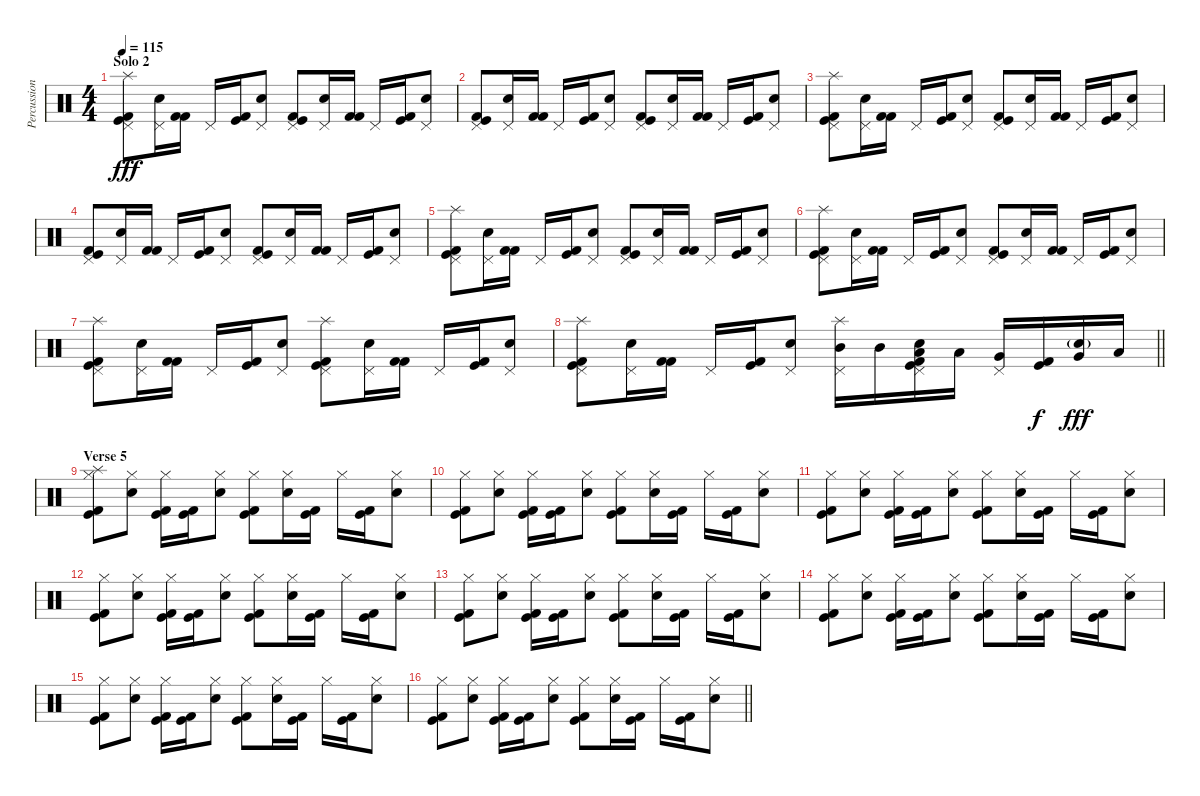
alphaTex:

\track ("Percussion" "Percussion") {instrument percussion}
\staff {score}
\articulation defaults
\ts (4 4)
\section ("" "Solo 2")
\tempo 115
\clef neutral
\ks c
("Splash (hit)" "Pedal Hi-Hat (hit)" "Kick (hit) 2" "Kick (hit)").8{dy fff} ("Pedal Hi-Hat (hit)" "Snare (hit) 2").16 ("Kick (hit) 2" "Kick (hit) 2").16 "Pedal Hi-Hat (hit)".16 ("Kick (hit)" "Kick (hit) 2").16 ("Pedal Hi-Hat (hit)" "Snare (hit) 2").8 ("Pedal Hi-Hat (hit)" "Kick (hit) 2" "Kick (hit)").8 ("Pedal Hi-Hat (hit)" "Snare (hit) 2").16 ("Kick (hit) 2" "Kick (hit) 2").16 "Pedal Hi-Hat (hit)".16 ("Kick (hit)" "Kick (hit) 2").16 ("Pedal Hi-Hat (hit)" "Snare (hit) 2").8 |
("Pedal Hi-Hat (hit)" "Kick (hit) 2" "Kick (hit)").8 ("Pedal Hi-Hat (hit)" "Snare (hit) 2").16 ("Kick (hit) 2" "Kick (hit) 2").16 "Pedal Hi-Hat (hit)".16 ("Kick (hit)" "Kick (hit) 2").16 ("Pedal Hi-Hat (hit)" "Snare (hit) 2").8 ("Pedal Hi-Hat (hit)" "Kick (hit) 2" "Kick (hit)").8 ("Pedal Hi-Hat (hit)" "Snare (hit) 2").16 ("Kick (hit) 2" "Kick (hit) 2").16 "Pedal Hi-Hat (hit)".16 ("Kick (hit)" "Kick (hit) 2").16 ("Pedal Hi-Hat (hit)" "Snare (hit) 2").8 |
("Splash (hit)" "Pedal Hi-Hat (hit)" "Kick (hit) 2" "Kick (hit)").8 ("Pedal Hi-Hat (hit)" "Snare (hit) 2").16 ("Kick (hit) 2" "Kick (hit) 2").16 "Pedal Hi-Hat (hit)".16 ("Kick (hit)" "Kick (hit) 2").16 ("Pedal Hi-Hat (hit)" "Snare (hit) 2").8 ("Pedal Hi-Hat (hit)" "Kick (hit) 2" "Kick (hit)").8 ("Pedal Hi-Hat (hit)" "Snare (hit) 2").16 ("Kick (hit) 2" "Kick (hit) 2").16 "Pedal Hi-Hat (hit)".16 ("Kick (hit)" "Kick (hit) 2").16 ("Pedal Hi-Hat (hit)" "Snare (hit) 2").8 |
("Pedal Hi-Hat (hit)" "Kick (hit) 2" "Kick (hit)").8 ("Pedal Hi-Hat (hit)" "Snare (hit) 2").16 ("Kick (hit) 2" "Kick (hit) 2").16 "Pedal Hi-Hat (hit)".16 ("Kick (hit)" "Kick (hit) 2").16 ("Pedal Hi-Hat (hit)" "Snare (hit) 2").8 ("Pedal Hi-Hat (hit)" "Kick (hit) 2" "Kick (hit)").8 ("Pedal Hi-Hat (hit)" "Snare (hit) 2").16 ("Kick (hit) 2" "Kick (hit) 2").16 "Pedal Hi-Hat (hit)".16 ("Kick (hit)" "Kick (hit) 2").16 ("Pedal Hi-Hat (hit)" "Snare (hit) 2").8 |
("Splash (hit)" "Pedal Hi-Hat (hit)" "Kick (hit) 2" "Kick (hit)").8 ("Pedal Hi-Hat (hit)" "Snare (hit) 2").16 ("Kick (hit) 2" "Kick (hit) 2").16 "Pedal Hi-Hat (hit)".16 ("Kick (hit)" "Kick (hit) 2").16 ("Pedal Hi-Hat (hit)" "Snare (hit) 2").8 ("Pedal Hi-Hat (hit)" "Kick (hit) 2" "Kick (hit)").8 ("Pedal Hi-Hat (hit)" "Snare (hit) 2").16 ("Kick (hit) 2" "Kick (hit) 2").16 "Pedal Hi-Hat (hit)".16 ("Kick (hit)" "Kick (hit) 2").16 ("Pedal Hi-Hat (hit)" "Snare (hit) 2").8 |
("Splash (hit)" "Pedal Hi-Hat (hit)" "Kick (hit) 2" "Kick (hit)").8 ("Pedal Hi-Hat (hit)" "Snare (hit) 2").16 ("Kick (hit) 2" "Kick (hit) 2").16 "Pedal Hi-Hat (hit)".16 ("Kick (hit)" "Kick (hit) 2").16 ("Pedal Hi-Hat (hit)" "Snare (hit) 2").8 ("Pedal Hi-Hat (hit)" "Kick (hit) 2" "Kick (hit)").8 ("Pedal Hi-Hat (hit)" "Snare (hit) 2").16 ("Kick (hit) 2" "Kick (hit) 2").16 "Pedal Hi-Hat (hit)".16 ("Kick (hit)" "Kick (hit) 2").16 ("Pedal Hi-Hat (hit)" "Snare (hit) 2").8 |
("Splash (hit)" "Pedal Hi-Hat (hit)" "Kick (hit) 2" "Kick (hit)").8 ("Pedal Hi-Hat (hit)" "Snare (hit) 2").16 ("Kick (hit) 2" "Kick (hit) 2").16 "Pedal Hi-Hat (hit)".16 ("Kick (hit)" "Kick (hit) 2").16 ("Pedal Hi-Hat (hit)" "Snare (hit) 2").8 ("Splash (hit)" "Pedal Hi-Hat (hit)" "Kick (hit) 2" "Kick (hit)").8 ("Pedal Hi-Hat (hit)" "Snare (hit) 2").16 ("Kick (hit) 2" "Kick (hit) 2").16 "Pedal Hi-Hat (hit)".16 ("Kick (hit)" "Kick (hit) 2").16 ("Pedal Hi-Hat (hit)" "Snare (hit) 2").8 |
\barLineRight lightlight
("Splash (hit)" "Pedal Hi-Hat (hit)" "Kick (hit) 2" "Kick (hit)").8 ("Pedal Hi-Hat (hit)" "Snare (hit) 2").16 ("Kick (hit) 2" "Kick (hit) 2").16 "Pedal Hi-Hat (hit)".16 ("Kick (hit)" "Kick (hit) 2").16 ("Pedal Hi-Hat (hit)" "Snare (hit) 2").8 ("Splash (hit)" "Pedal Hi-Hat (hit)" "Mid Tom (hit)").16{balance 14} "Mid Tom (hit)".16 ("Snare (hit) 2" "Pedal Hi-Hat (hit)" "Low Tom (hit)" "Kick (hit)" "Kick (hit) 2").16{balance 13} "Low Tom (hit)".16 ("Pedal Hi-Hat (hit)" "Very Low Tom (hit)").16{balance 10} ("Kick (hit)" "Kick (hit) 2").16{dy f} ("Snare (hit) 2"{g} "Very Low Tom (hit)").16{dy fff} "Low Floor Tom (hit)".16 |
\section ("" "Verse 5")
("Splash (hit)" "Hi-Hat (closed)" "Kick (hit)" "Kick (hit) 2").8 ("Snare (hit) 2" "Hi-Hat (closed)").8 ("Hi-Hat (closed)" "Kick (hit)" "Kick (hit) 2").16 ("Kick (hit)" "Kick (hit) 2").16 ("Snare (hit) 2" "Hi-Hat (closed)").8 ("Hi-Hat (closed)" "Kick (hit)" "Kick (hit) 2").8 ("Snare (hit) 2" "Hi-Hat (closed)").16 ("Kick (hit)" "Kick (hit) 2").16 "Hi-Hat (closed)".16 ("Kick (hit)" "Kick (hit) 2").16 ("Snare (hit) 2" "Hi-Hat (closed)").8 |
("Hi-Hat (closed)" "Kick (hit)" "Kick (hit) 2").8 ("Snare (hit) 2" "Hi-Hat (closed)").8 ("Hi-Hat (closed)" "Kick (hit)" "Kick (hit) 2").16 ("Kick (hit)" "Kick (hit) 2").16 ("Snare (hit) 2" "Hi-Hat (closed)").8 ("Hi-Hat (closed)" "Kick (hit)" "Kick (hit) 2").8 ("Snare (hit) 2" "Hi-Hat (closed)").16 ("Kick (hit)" "Kick (hit) 2").16 "Hi-Hat (closed)".16 ("Kick (hit)" "Kick (hit) 2").16 ("Snare (hit) 2" "Hi-Hat (closed)").8 |
("Hi-Hat (closed)" "Kick (hit)" "Kick (hit) 2").8 ("Snare (hit) 2" "Hi-Hat (closed)").8 ("Hi-Hat (closed)" "Kick (hit)" "Kick (hit) 2").16 ("Kick (hit)" "Kick (hit) 2").16 ("Snare (hit) 2" "Hi-Hat (closed)").8 ("Hi-Hat (closed)" "Kick (hit)" "Kick (hit) 2").8 ("Snare (hit) 2" "Hi-Hat (closed)").16 ("Kick (hit)" "Kick (hit) 2").16 "Hi-Hat (closed)".16 ("Kick (hit)" "Kick (hit) 2").16 ("Snare (hit) 2" "Hi-Hat (closed)").8 |
("Hi-Hat (closed)" "Kick (hit)" "Kick (hit) 2").8 ("Snare (hit) 2" "Hi-Hat (closed)").8 ("Hi-Hat (closed)" "Kick (hit)" "Kick (hit) 2").16 ("Kick (hit)" "Kick (hit) 2").16 ("Snare (hit) 2" "Hi-Hat (closed)").8 ("Hi-Hat (closed)" "Kick (hit)" "Kick (hit) 2").8 ("Snare (hit) 2" "Hi-Hat (closed)").16 ("Kick (hit)" "Kick (hit) 2").16 "Hi-Hat (closed)".16 ("Kick (hit)" "Kick (hit) 2").16 ("Snare (hit) 2" "Hi-Hat (closed)").8 |
("Hi-Hat (closed)" "Kick (hit)" "Kick (hit) 2").8 ("Snare (hit) 2" "Hi-Hat (closed)").8 ("Hi-Hat (closed)" "Kick (hit)" "Kick (hit) 2").16 ("Kick (hit)" "Kick (hit) 2").16 ("Snare (hit) 2" "Hi-Hat (closed)").8 ("Hi-Hat (closed)" "Kick (hit)" "Kick (hit) 2").8 ("Snare (hit) 2" "Hi-Hat (closed)").16 ("Kick (hit)" "Kick (hit) 2").16 "Hi-Hat (closed)".16 ("Kick (hit)" "Kick (hit) 2").16 ("Snare (hit) 2" "Hi-Hat (closed)").8 |
("Hi-Hat (closed)" "Kick (hit)" "Kick (hit) 2").8 ("Snare (hit) 2" "Hi-Hat (closed)").8 ("Hi-Hat (closed)" "Kick (hit)" "Kick (hit) 2").16 ("Kick (hit)" "Kick (hit) 2").16 ("Snare (hit) 2" "Hi-Hat (closed)").8 ("Hi-Hat (closed)" "Kick (hit)" "Kick (hit) 2").8 ("Snare (hit) 2" "Hi-Hat (closed)").16 ("Kick (hit)" "Kick (hit) 2").16 "Hi-Hat (closed)".16 ("Kick (hit)" "Kick (hit) 2").16 ("Snare (hit) 2" "Hi-Hat (closed)").8 |
("Hi-Hat (closed)" "Kick (hit)" "Kick (hit) 2").8 ("Snare (hit) 2" "Hi-Hat (closed)").8 ("Hi-Hat (closed)" "Kick (hit)" "Kick (hit) 2").16 ("Kick (hit)" "Kick (hit) 2").16 ("Snare (hit) 2" "Hi-Hat (closed)").8 ("Hi-Hat (closed)" "Kick (hit)" "Kick (hit) 2").8 ("Snare (hit) 2" "Hi-Hat (closed)").16 ("Kick (hit)" "Kick (hit) 2").16 "Hi-Hat (closed)".16 ("Kick (hit)" "Kick (hit) 2").16 ("Snare (hit) 2" "Hi-Hat (closed)").8 |
\barLineRight lightlight
("Hi-Hat (closed)" "Kick (hit)" "Kick (hit) 2").8 ("Snare (hit) 2" "Hi-Hat (closed)").8 ("Hi-Hat (closed)" "Kick (hit)" "Kick (hit) 2").16 ("Kick (hit)" "Kick (hit) 2").16 ("Snare (hit) 2" "Hi-Hat (closed)").8 ("Hi-Hat (closed)" "Kick (hit)" "Kick (hit) 2").8 ("Snare (hit) 2" "Hi-Hat (closed)").16 ("Kick (hit)" "Kick (hit) 2").16 "Hi-Hat (closed)".16 ("Kick (hit)" "Kick (hit) 2").16 ("Snare (hit) 2" "Hi-Hat (closed)").8
